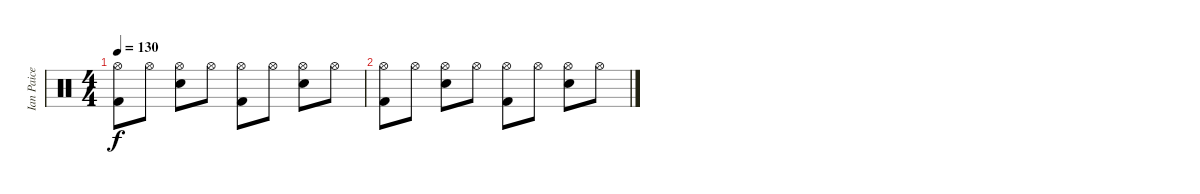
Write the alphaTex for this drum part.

\track ("Ian Paice" "Ian Paice") {instrument percussion}
\staff {score}
\articulation defaults
\ts (4 4)
\tempo 130
\clef neutral
\ks c
("Hi-Hat (open)" "Kick (hit) 2").8{dy f} "Hi-Hat (open)".8 ("Hi-Hat (open)" "Snare (hit) 2").8 "Hi-Hat (open)".8 ("Hi-Hat (open)" "Kick (hit) 2").8 "Hi-Hat (open)".8 ("Hi-Hat (open)" "Snare (hit) 2").8 "Hi-Hat (open)".8 |
("Hi-Hat (open)" "Kick (hit) 2").8 "Hi-Hat (open)".8 ("Hi-Hat (open)" "Snare (hit) 2").8 "Hi-Hat (open)".8 ("Hi-Hat (open)" "Kick (hit) 2").8 "Hi-Hat (open)".8 ("Hi-Hat (open)" "Snare (hit) 2").8 "Hi-Hat (open)".8
